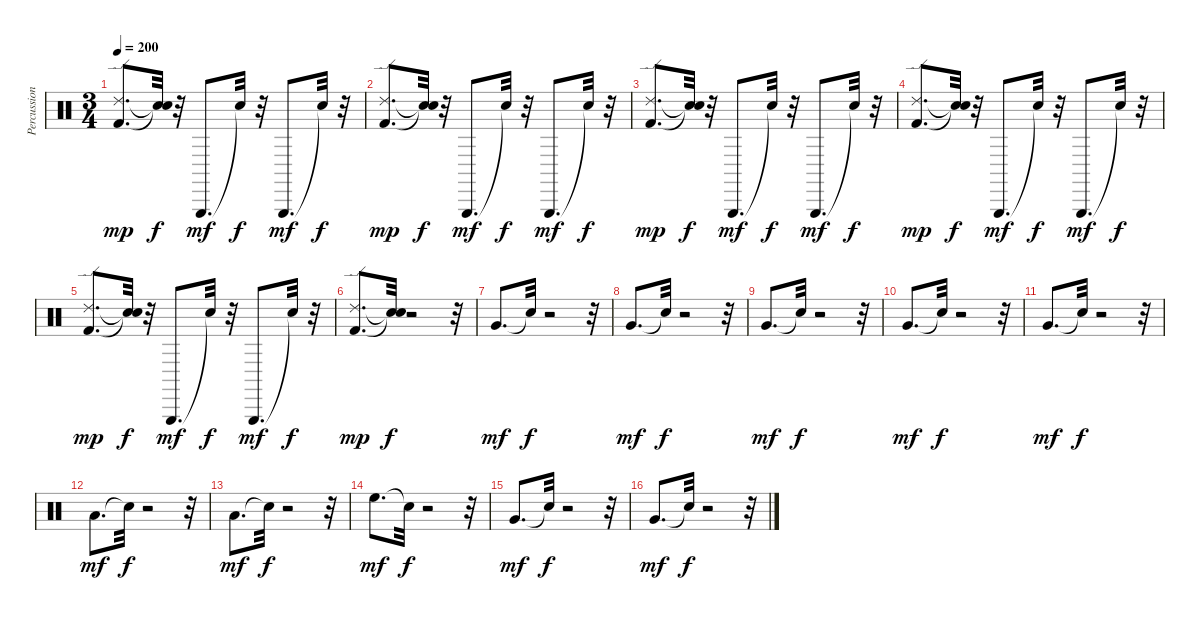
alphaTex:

\track ("Percussion." "Percussion") {instrument percussion}
\staff {score}
\articulation defaults
\ts (3 4)
\tempo 200
\clef neutral
\ks c
("Kick (hit) 2" "Ride (edge) 2").8{d dy mp} ("Snare (hit)"{t} "Snare (hit)"{t}).32{dy f} r.32 "Triangle (hit)".8{d dy mf} "Snare (hit)"{t}.32{dy f} r.32 "Triangle (hit)".8{d dy mf} "Snare (hit)"{t}.32{dy f} r.32 |
("Kick (hit) 2" "Ride (edge) 2").8{d dy mp} ("Snare (hit)"{t} "Snare (hit)"{t}).32{dy f} r.32 "Triangle (hit)".8{d dy mf} "Snare (hit)"{t}.32{dy f} r.32 "Triangle (hit)".8{d dy mf} "Snare (hit)"{t}.32{dy f} r.32 |
("Kick (hit) 2" "Ride (edge) 2").8{d dy mp} ("Snare (hit)"{t} "Snare (hit)"{t}).32{dy f} r.32 "Triangle (hit)".8{d dy mf} "Snare (hit)"{t}.32{dy f} r.32 "Triangle (hit)".8{d dy mf} "Snare (hit)"{t}.32{dy f} r.32 |
("Ride (edge) 2" "Kick (hit) 2").8{d dy mp} ("Snare (hit)"{t} "Snare (hit)"{t}).32{dy f} r.32 "Triangle (hit)".8{d dy mf} "Snare (hit)"{t}.32{dy f} r.32 "Triangle (hit)".8{d dy mf} "Snare (hit)"{t}.32{dy f} r.32 |
("Kick (hit) 2" "Ride (edge) 2").8{d dy mp} ("Snare (hit)"{t} "Snare (hit)"{t}).32{dy f} r.32 "Triangle (hit)".8{d dy mf} "Snare (hit)"{t}.32{dy f} r.32 "Triangle (hit)".8{d dy mf} "Snare (hit)"{t}.32{dy f} r.32 |
("Ride (edge) 2" "Kick (hit) 2").8{d dy mp} ("Snare (hit)"{t} "Snare (hit)"{t}).32{dy f} r.2 r.32 |
"Very Low Tom (hit)".8{d dy mf} "Snare (hit)"{t}.32{dy f} r.2 r.32 |
"Very Low Tom (hit)".8{d dy mf} "Snare (hit)"{t}.32{dy f} r.2 r.32 |
"Very Low Tom (hit)".8{d dy mf} "Snare (hit)"{t}.32{dy f} r.2 r.32 |
"Very Low Tom (hit)".8{d dy mf} "Snare (hit)"{t}.32{dy f} r.2 r.32 |
"Very Low Tom (hit)".8{d dy mf} "Snare (hit)"{t}.32{dy f} r.2 r.32 |
"Low Tom (hit)".8{d dy mf} "Snare (hit)"{t}.32{dy f} r.2 r.32 |
"Low Tom (hit)".8{d dy mf} "Snare (hit)"{t}.32{dy f} r.2 r.32 |
"High Floor Tom (hit)".8{d dy mf} "Snare (hit)"{t}.32{dy f} r.2 r.32 |
"Very Low Tom (hit)".8{d dy mf} "Snare (hit)"{t}.32{dy f} r.2 r.32 |
"Very Low Tom (hit)".8{d dy mf} "Snare (hit)"{t}.32{dy f} r.2 r.32
